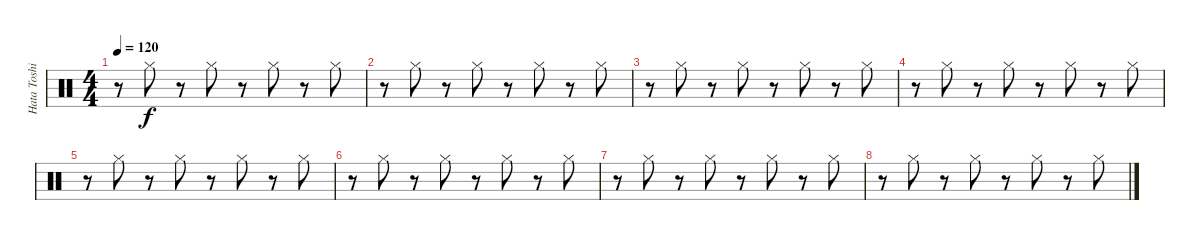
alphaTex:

\track ("Hata Toshiki" "Hata Toshi") {instrument percussion}
\staff {score}
\articulation defaults
\ts (4 4)
\tempo 120
\clef neutral
\ks c
r.8{dy f} "Hi-Hat (closed)".8 r.8 "Hi-Hat (closed)".8 r.8 "Hi-Hat (closed)".8 r.8 "Hi-Hat (closed)".8 |
r.8 "Hi-Hat (closed)".8 r.8 "Hi-Hat (closed)".8 r.8 "Hi-Hat (closed)".8 r.8 "Hi-Hat (closed)".8 |
r.8 "Hi-Hat (closed)".8 r.8 "Hi-Hat (closed)".8 r.8 "Hi-Hat (closed)".8 r.8 "Hi-Hat (closed)".8 |
r.8 "Hi-Hat (closed)".8 r.8 "Hi-Hat (closed)".8 r.8 "Hi-Hat (closed)".8 r.8 "Hi-Hat (closed)".8 |
r.8 "Hi-Hat (closed)".8 r.8 "Hi-Hat (closed)".8 r.8 "Hi-Hat (closed)".8 r.8 "Hi-Hat (closed)".8 |
r.8 "Hi-Hat (closed)".8 r.8 "Hi-Hat (closed)".8 r.8 "Hi-Hat (closed)".8 r.8 "Hi-Hat (closed)".8 |
r.8 "Hi-Hat (closed)".8 r.8 "Hi-Hat (closed)".8 r.8 "Hi-Hat (closed)".8 r.8 "Hi-Hat (closed)".8 |
r.8 "Hi-Hat (closed)".8 r.8 "Hi-Hat (closed)".8 r.8 "Hi-Hat (closed)".8 r.8 "Hi-Hat (closed)".8
